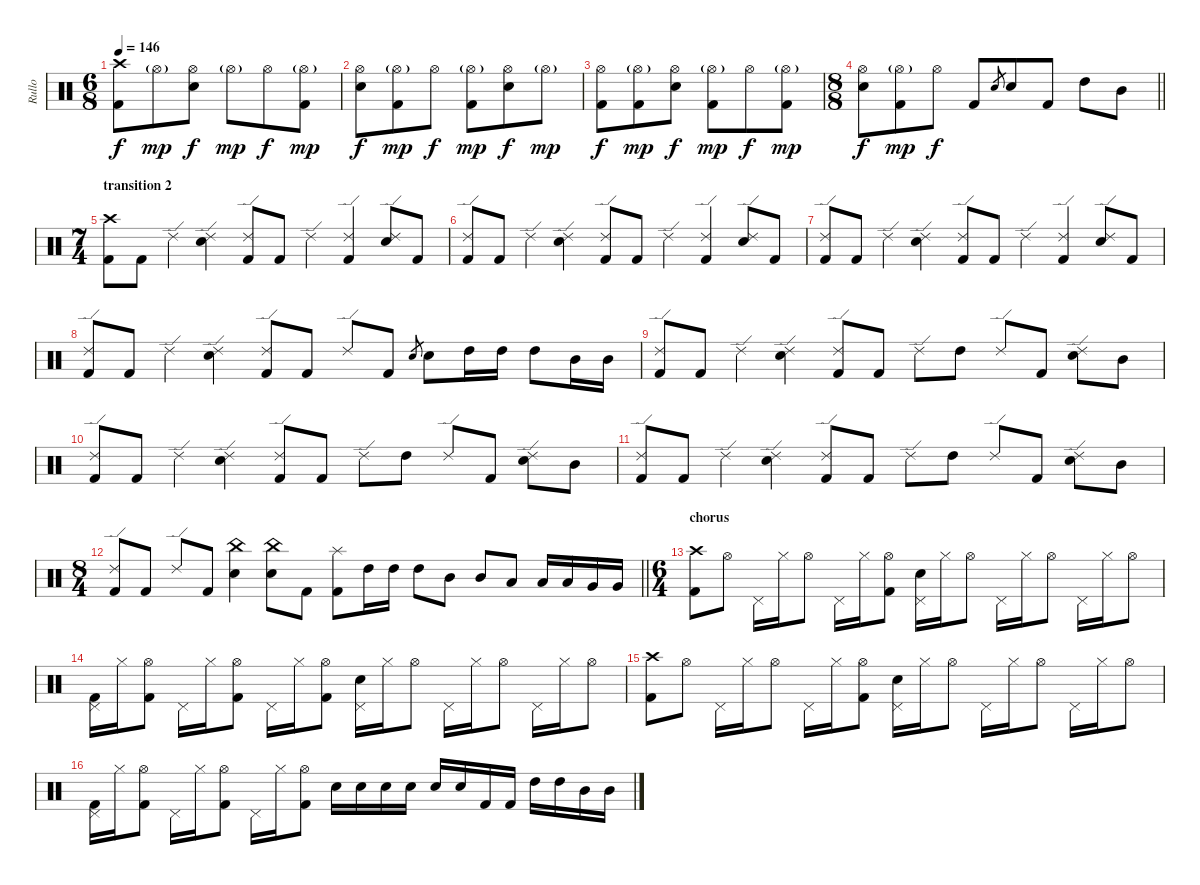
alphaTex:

\track ("Rullo" "Rullo") {instrument percussion}
\staff {score}
\articulation defaults
\ts (6 8)
\tempo 146
\clef neutral
\ks c
("Crash high (hit)" "Kick (hit) 2").8{dy f} "Hi-Hat (open)"{g}.8{dy mp} ("Hi-Hat (open)" "Electric Snare (hit)").8{dy f} "Hi-Hat (open)"{g}.8{dy mp} "Hi-Hat (open)".8{dy f} ("Hi-Hat (open)"{g} "Kick (hit) 2").8{dy mp} |
("Hi-Hat (open)" "Electric Snare (hit)").8{dy f} ("Hi-Hat (open)"{g} "Kick (hit) 2").8{dy mp} "Hi-Hat (open)".8{dy f} ("Hi-Hat (open)"{g} "Kick (hit) 2").8{dy mp} ("Hi-Hat (open)" "Electric Snare (hit)").8{dy f} "Hi-Hat (open)"{g}.8{dy mp} |
("Hi-Hat (open)" "Kick (hit) 2").8{dy f} ("Hi-Hat (open)"{g} "Kick (hit) 2").8{dy mp} ("Hi-Hat (open)" "Electric Snare (hit)").8{dy f} ("Hi-Hat (open)"{g} "Kick (hit) 2").8{dy mp} "Hi-Hat (open)".8{dy f} ("Hi-Hat (open)"{g} "Kick (hit) 2").8{dy mp} |
\ts (8 8)
\barLineRight lightlight
("Hi-Hat (open)" "Electric Snare (hit)").8{dy f} ("Hi-Hat (open)"{g} "Kick (hit) 2").8{dy mp} "Hi-Hat (open)".8{dy f} "Kick (hit) 2".8 "Electric Snare (hit)".8{gr} "Electric Snare (hit)".8 "Kick (hit) 2".8 "High Tom (hit)".8 "Mid Tom (hit)".8 |
\ts (7 4)
\section ("" "transition 2")
("Crash high (hit)" "Kick (hit) 2").8 "Kick (hit) 2".8 "Ride (edge) 2".4 ("Ride (edge) 2" "Electric Snare (hit)").4 ("Ride (edge) 2" "Kick (hit) 2").8 "Kick (hit) 2".8 "Ride (edge) 2".4 ("Ride (edge) 2" "Kick (hit) 2").4 ("Ride (edge) 2" "Electric Snare (hit)").8 "Kick (hit) 2".8 |
("Ride (edge) 2" "Kick (hit) 2").8 "Kick (hit) 2".8 "Ride (edge) 2".4 ("Ride (edge) 2" "Electric Snare (hit)").4 ("Ride (edge) 2" "Kick (hit) 2").8 "Kick (hit) 2".8 "Ride (edge) 2".4 ("Ride (edge) 2" "Kick (hit) 2").4 ("Ride (edge) 2" "Electric Snare (hit)").8 "Kick (hit) 2".8 |
("Ride (edge) 2" "Kick (hit) 2").8 "Kick (hit) 2".8 "Ride (edge) 2".4 ("Ride (edge) 2" "Electric Snare (hit)").4 ("Ride (edge) 2" "Kick (hit) 2").8 "Kick (hit) 2".8 "Ride (edge) 2".4 ("Ride (edge) 2" "Kick (hit) 2").4 ("Ride (edge) 2" "Electric Snare (hit)").8 "Kick (hit) 2".8 |
("Ride (edge) 2" "Kick (hit) 2").8 "Kick (hit) 2".8 "Ride (edge) 2".4 ("Ride (edge) 2" "Electric Snare (hit)").4 ("Ride (edge) 2" "Kick (hit) 2").8 "Kick (hit) 2".8 "Ride (edge) 2".8 "Kick (hit) 2".8 "Electric Snare (hit)".8{gr} "Electric Snare (hit)".8 "High Tom (hit)".16 "High Tom (hit)".16 "High Tom (hit)".8 "Mid Tom (hit)".16 "Mid Tom (hit)".16 |
("Ride (edge) 2" "Kick (hit) 2").8 "Kick (hit) 2".8 "Ride (edge) 2".4 ("Ride (edge) 2" "Electric Snare (hit)").4 ("Ride (edge) 2" "Kick (hit) 2").8 "Kick (hit) 2".8 "Ride (edge) 2".8 "High Tom (hit)".8 "Ride (edge) 2".8 "Kick (hit) 2".8 ("Ride (edge) 2" "Electric Snare (hit)").8 "Mid Tom (hit)".8 |
("Ride (edge) 2" "Kick (hit) 2").8 "Kick (hit) 2".8 "Ride (edge) 2".4 ("Ride (edge) 2" "Electric Snare (hit)").4 ("Ride (edge) 2" "Kick (hit) 2").8 "Kick (hit) 2".8 "Ride (edge) 2".8 "High Tom (hit)".8 "Ride (edge) 2".8 "Kick (hit) 2".8 ("Ride (edge) 2" "Electric Snare (hit)").8 "Mid Tom (hit)".8 |
("Ride (edge) 2" "Kick (hit) 2").8 "Kick (hit) 2".8 "Ride (edge) 2".4 ("Ride (edge) 2" "Electric Snare (hit)").4 ("Ride (edge) 2" "Kick (hit) 2").8 "Kick (hit) 2".8 "Ride (edge) 2".8 "High Tom (hit)".8 "Ride (edge) 2".8 "Kick (hit) 2".8 ("Ride (edge) 2" "Electric Snare (hit)").8 "Mid Tom (hit)".8 |
\ts (8 4)
\barLineRight lightlight
("Ride (edge) 2" "Kick (hit) 2").8 "Kick (hit) 2".8 "Ride (edge) 2".8 "Kick (hit) 2".8 ("China (hit)" "Electric Snare (hit)").4 ("China (hit)" "Electric Snare (hit)").8 "Kick (hit) 2".8 ("Splash (hit)" "Kick (hit) 2").8 "High Tom (hit)".16 "High Tom (hit)".16 "High Tom (hit)".8 "Mid Tom (hit)".8 "Mid Tom (hit)".8 "Low Tom (hit)".8 "Low Tom (hit)".16 "Low Tom (hit)".16 "Very Low Tom (hit)".16 "Very Low Tom (hit)".16 |
\ts (6 4)
\section ("" "chorus")
("Crash high (hit)" "Kick (hit) 2").8 "Hi-Hat (open)".8 "Pedal Hi-Hat (hit)".16 "Hi-Hat (closed)".16 "Hi-Hat (open)".8 "Pedal Hi-Hat (hit)".16 "Hi-Hat (closed)".16 ("Hi-Hat (open)" "Kick (hit) 2").8 ("Pedal Hi-Hat (hit)" "Electric Snare (hit)").16 "Hi-Hat (closed)".16 "Hi-Hat (open)".8 "Pedal Hi-Hat (hit)".16 "Hi-Hat (closed)".16 "Hi-Hat (open)".8 "Pedal Hi-Hat (hit)".16 "Hi-Hat (closed)".16 "Hi-Hat (open)".8 |
("Pedal Hi-Hat (hit)" "Kick (hit) 2").16 "Hi-Hat (closed)".16 ("Hi-Hat (open)" "Kick (hit) 2").8 "Pedal Hi-Hat (hit)".16 "Hi-Hat (closed)".16 ("Hi-Hat (open)" "Kick (hit) 2").8 "Pedal Hi-Hat (hit)".16 "Hi-Hat (closed)".16 ("Hi-Hat (open)" "Kick (hit) 2").8 ("Pedal Hi-Hat (hit)" "Electric Snare (hit)").16 "Hi-Hat (closed)".16 "Hi-Hat (open)".8 "Pedal Hi-Hat (hit)".16 "Hi-Hat (closed)".16 "Hi-Hat (open)".8 "Pedal Hi-Hat (hit)".16 "Hi-Hat (closed)".16 "Hi-Hat (open)".8 |
("Crash high (hit)" "Kick (hit) 2").8 "Hi-Hat (open)".8 "Pedal Hi-Hat (hit)".16 "Hi-Hat (closed)".16 "Hi-Hat (open)".8 "Pedal Hi-Hat (hit)".16 "Hi-Hat (closed)".16 ("Hi-Hat (open)" "Kick (hit) 2").8 ("Pedal Hi-Hat (hit)" "Electric Snare (hit)").16 "Hi-Hat (closed)".16 "Hi-Hat (open)".8 "Pedal Hi-Hat (hit)".16 "Hi-Hat (closed)".16 "Hi-Hat (open)".8 "Pedal Hi-Hat (hit)".16 "Hi-Hat (closed)".16 "Hi-Hat (open)".8 |
("Pedal Hi-Hat (hit)" "Kick (hit) 2").16 "Hi-Hat (closed)".16 ("Hi-Hat (open)" "Kick (hit) 2").8 "Pedal Hi-Hat (hit)".16 "Hi-Hat (closed)".16 ("Hi-Hat (open)" "Kick (hit) 2").8 "Pedal Hi-Hat (hit)".16 "Hi-Hat (closed)".16 ("Hi-Hat (open)" "Kick (hit) 2").8 "Electric Snare (hit)".16 "Electric Snare (hit)".16 "Electric Snare (hit)".16 "Electric Snare (hit)".16 "Electric Snare (hit)".16 "Electric Snare (hit)".16 "Kick (hit) 2".16 "Kick (hit) 2".16 "High Tom (hit)".16 "High Tom (hit)".16 "Mid Tom (hit)".16 "Mid Tom (hit)".16
